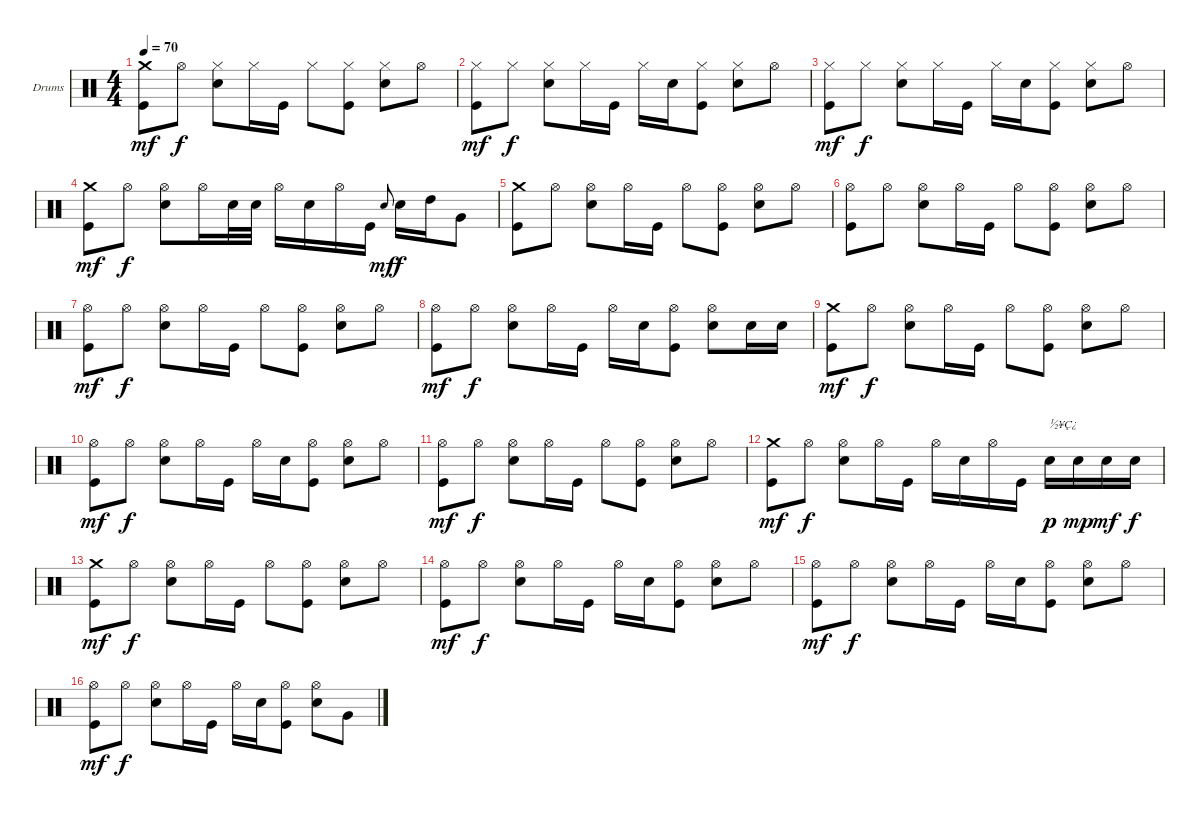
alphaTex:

\bracketExtendMode groupsimilarinstruments
\firstSystemTrackNameOrientation horizontal
\otherSystemsTrackNameOrientation horizontal
\track ("Drumkit" "Drums") {instrument percussion}
\staff {score}
\articulation defaults
\ts (4 4)
\tempo 70
\clef neutral
\ks c
("Crash medium (hit)" "Kick (hit)").8{dy mf} "Hi-Hat (open)".8{dy f} ("Hi-Hat (closed)" "Snare (hit) 2").8 "Hi-Hat (closed)".16 "Kick (hit)".16 "Hi-Hat (closed)".8 ("Hi-Hat (closed)" "Kick (hit)").8 ("Hi-Hat (closed)" "Snare (hit) 2").8 "Hi-Hat (open)".8 |
("Hi-Hat (closed)" "Kick (hit)").8{dy mf} "Hi-Hat (closed)".8{dy f} ("Hi-Hat (closed)" "Snare (hit) 2").8 "Hi-Hat (closed)".16 "Kick (hit)".16 "Hi-Hat (closed)".16 "Snare (hit) 2".16 ("Hi-Hat (closed)" "Kick (hit)").8 ("Hi-Hat (closed)" "Snare (hit) 2").8 "Hi-Hat (open)".8 |
("Hi-Hat (closed)" "Kick (hit)").8{dy mf} "Hi-Hat (closed)".8{dy f} ("Hi-Hat (closed)" "Snare (hit) 2").8 "Hi-Hat (closed)".16 "Kick (hit)".16 "Hi-Hat (closed)".16 "Snare (hit) 2".16 ("Hi-Hat (closed)" "Kick (hit)").8 ("Hi-Hat (closed)" "Snare (hit) 2").8 "Hi-Hat (open)".8 |
("Crash medium (hit)" "Kick (hit)").8{dy mf} "Hi-Hat (open)".8{dy f} ("Hi-Hat (open)" "Snare (hit) 2").8 "Hi-Hat (open)".16 "Snare (hit) 2".32 "Snare (hit) 2".32 "Hi-Hat (open)".16 "Snare (hit) 2".16 "Hi-Hat (open)".16 "Kick (hit)".16 "Snare (hit) 2".8{gr onbeat dy mf} "Snare (hit) 2".16{dy f} "High Tom (hit)".16 "Very Low Tom (hit)".8 |
("Crash medium (hit)" "Kick (hit)").8 "Hi-Hat (open)".8 ("Hi-Hat (open)" "Snare (hit) 2").8 "Hi-Hat (open)".16 "Kick (hit)".16 "Hi-Hat (open)".8 ("Hi-Hat (open)" "Kick (hit)").8 ("Hi-Hat (open)" "Snare (hit) 2").8 "Hi-Hat (open)".8 |
("Hi-Hat (open)" "Kick (hit)").8 "Hi-Hat (open)".8 ("Hi-Hat (open)" "Snare (hit) 2").8 "Hi-Hat (open)".16 "Kick (hit)".16 "Hi-Hat (open)".8 ("Hi-Hat (open)" "Kick (hit)").8 ("Hi-Hat (open)" "Snare (hit) 2").8 "Hi-Hat (open)".8 |
("Hi-Hat (open)" "Kick (hit)").8{dy mf} "Hi-Hat (open)".8{dy f} ("Hi-Hat (open)" "Snare (hit) 2").8 "Hi-Hat (open)".16 "Kick (hit)".16 "Hi-Hat (open)".8 ("Hi-Hat (open)" "Kick (hit)").8 ("Hi-Hat (open)" "Snare (hit) 2").8 "Hi-Hat (open)".8 |
("Hi-Hat (open)" "Kick (hit)").8{dy mf} "Hi-Hat (open)".8{dy f} ("Hi-Hat (open)" "Snare (hit) 2").8 "Hi-Hat (open)".16 "Kick (hit)".16 "Hi-Hat (open)".16 "Snare (hit) 2".16 ("Hi-Hat (open)" "Kick (hit)").8 ("Hi-Hat (open)" "Snare (hit) 2").8 "Snare (hit) 2".16 "Snare (hit) 2".16 |
("Crash medium (hit)" "Kick (hit)").8{dy mf} "Hi-Hat (open)".8{dy f} ("Hi-Hat (open)" "Snare (hit) 2").8 "Hi-Hat (open)".16 "Kick (hit)".16 "Hi-Hat (open)".8 ("Hi-Hat (open)" "Kick (hit)").8 ("Hi-Hat (open)" "Snare (hit) 2").8 "Hi-Hat (open)".8 |
("Hi-Hat (open)" "Kick (hit)").8{dy mf} "Hi-Hat (open)".8{dy f} ("Hi-Hat (open)" "Snare (hit) 2").8 "Hi-Hat (open)".16 "Kick (hit)".16 "Hi-Hat (open)".16 "Snare (hit) 2".16 ("Hi-Hat (open)" "Kick (hit)").8 ("Hi-Hat (open)" "Snare (hit) 2").8 "Hi-Hat (open)".8 |
("Hi-Hat (open)" "Kick (hit)").8{dy mf} "Hi-Hat (open)".8{dy f} ("Hi-Hat (open)" "Snare (hit) 2").8 "Hi-Hat (open)".16 "Kick (hit)".16 "Hi-Hat (open)".8 ("Hi-Hat (open)" "Kick (hit)").8 ("Hi-Hat (open)" "Snare (hit) 2").8 "Hi-Hat (open)".8 |
("Crash medium (hit)" "Kick (hit)").8{dy mf} "Hi-Hat (open)".8{dy f} ("Hi-Hat (open)" "Snare (hit) 2").8 "Hi-Hat (open)".16 "Kick (hit)".16 "Hi-Hat (open)".16 "Snare (hit) 2".16 "Hi-Hat (open)".16 "Kick (hit)".16 "Snare (hit) 2".16{txt "½¥Ç¿" dy p} "Snare (hit) 2".16{dy mp} "Snare (hit) 2".16{dy mf} "Snare (hit) 2".16{dy f} |
("Crash medium (hit)" "Kick (hit)").8{dy mf} "Hi-Hat (open)".8{dy f} ("Hi-Hat (open)" "Snare (hit) 2").8 "Hi-Hat (open)".16 "Kick (hit)".16 "Hi-Hat (open)".8 ("Hi-Hat (open)" "Kick (hit)").8 ("Hi-Hat (open)" "Snare (hit) 2").8 "Hi-Hat (open)".8 |
("Hi-Hat (open)" "Kick (hit)").8{dy mf} "Hi-Hat (open)".8{dy f} ("Hi-Hat (open)" "Snare (hit) 2").8 "Hi-Hat (open)".16 "Kick (hit)".16 "Hi-Hat (open)".16 "Snare (hit) 2".16 ("Hi-Hat (open)" "Kick (hit)").8 ("Hi-Hat (open)" "Snare (hit) 2").8 "Hi-Hat (open)".8 |
("Hi-Hat (open)" "Kick (hit)").8{dy mf} "Hi-Hat (open)".8{dy f} ("Hi-Hat (open)" "Snare (hit) 2").8 "Hi-Hat (open)".16 "Kick (hit)".16 "Hi-Hat (open)".16 "Snare (hit) 2".16 ("Hi-Hat (open)" "Kick (hit)").8 ("Hi-Hat (open)" "Snare (hit) 2").8 "Hi-Hat (open)".8 |
("Hi-Hat (open)" "Kick (hit)").8{dy mf} "Hi-Hat (open)".8{dy f} ("Hi-Hat (open)" "Snare (hit) 2").8 "Hi-Hat (open)".16 "Kick (hit)".16 "Hi-Hat (open)".16 "Snare (hit) 2".16 ("Hi-Hat (open)" "Kick (hit)").8 ("Hi-Hat (open)" "Snare (hit) 2").8 "Very Low Tom (hit)".8
